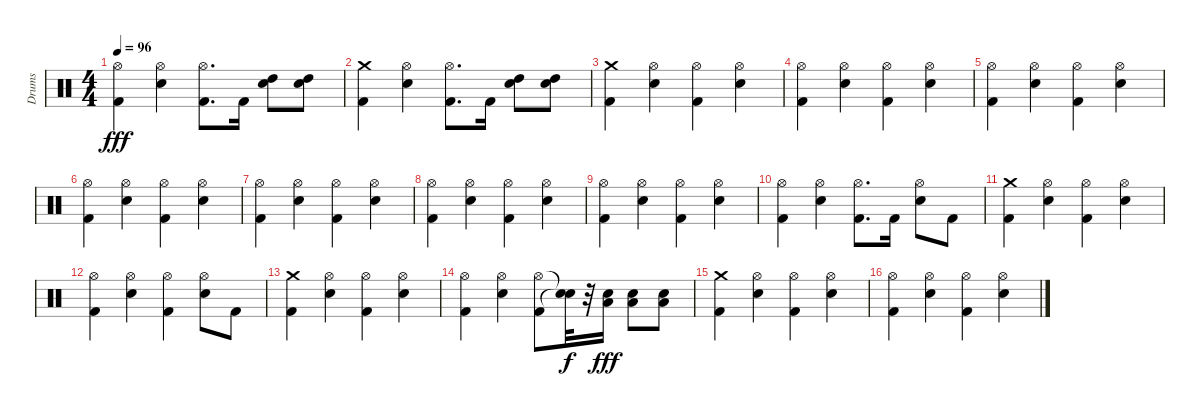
\track ("Drums" "Drums") {instrument percussion}
\staff {score}
\articulation defaults
\ts (4 4)
\tempo 96
\clef neutral
\ks c
("Hi-Hat (open)" "Kick (hit) 2").4{dy fff} ("Hi-Hat (open)" "Snare (hit) 2").4 ("Hi-Hat (open)" "Kick (hit) 2").8{d} "Kick (hit) 2".16 ("Snare (hit) 2" "High Tom (hit)").8 ("Snare (hit) 2" "High Tom (hit)").8 |
("Kick (hit) 2" "Crash medium (hit)").4 ("Hi-Hat (open)" "Snare (hit) 2").4 ("Hi-Hat (open)" "Kick (hit) 2").8{d} "Kick (hit) 2".16 ("Snare (hit) 2" "High Tom (hit)").8 ("Snare (hit) 2" "High Tom (hit)").8 |
("Kick (hit) 2" "Crash medium (hit)").4 ("Hi-Hat (open)" "Snare (hit) 2").4 ("Hi-Hat (open)" "Kick (hit) 2").4 ("Hi-Hat (open)" "Snare (hit) 2").4 |
("Hi-Hat (open)" "Kick (hit) 2").4 ("Hi-Hat (open)" "Snare (hit) 2").4 ("Hi-Hat (open)" "Kick (hit) 2").4 ("Hi-Hat (open)" "Snare (hit) 2").4 |
("Hi-Hat (open)" "Kick (hit) 2").4 ("Hi-Hat (open)" "Snare (hit) 2").4 ("Hi-Hat (open)" "Kick (hit) 2").4 ("Hi-Hat (open)" "Snare (hit) 2").4 |
("Hi-Hat (open)" "Kick (hit) 2").4 ("Hi-Hat (open)" "Snare (hit) 2").4 ("Hi-Hat (open)" "Kick (hit) 2").4 ("Hi-Hat (open)" "Snare (hit) 2").4 |
("Hi-Hat (open)" "Kick (hit) 2").4 ("Hi-Hat (open)" "Snare (hit) 2").4 ("Hi-Hat (open)" "Kick (hit) 2").4 ("Hi-Hat (open)" "Snare (hit) 2").4 |
("Hi-Hat (open)" "Kick (hit) 2").4 ("Hi-Hat (open)" "Snare (hit) 2").4 ("Hi-Hat (open)" "Kick (hit) 2").4 ("Hi-Hat (open)" "Snare (hit) 2").4 |
("Hi-Hat (open)" "Kick (hit) 2").4 ("Hi-Hat (open)" "Snare (hit) 2").4 ("Hi-Hat (open)" "Kick (hit) 2").4 ("Hi-Hat (open)" "Snare (hit) 2").4 |
("Hi-Hat (open)" "Kick (hit) 2").4 ("Hi-Hat (open)" "Snare (hit) 2").4 ("Hi-Hat (open)" "Kick (hit) 2").8{d} "Kick (hit) 2".16 ("Hi-Hat (open)" "Snare (hit) 2").8 "Kick (hit) 2".8 |
("Kick (hit) 2" "Crash medium (hit)").4 ("Hi-Hat (open)" "Snare (hit) 2").4 ("Hi-Hat (open)" "Kick (hit) 2").4 ("Hi-Hat (open)" "Snare (hit) 2").4 |
("Hi-Hat (open)" "Kick (hit) 2").4 ("Hi-Hat (open)" "Snare (hit) 2").4 ("Hi-Hat (open)" "Kick (hit) 2").4 ("Hi-Hat (open)" "Snare (hit) 2").8 "Kick (hit) 2".8 |
("Kick (hit) 2" "Crash medium (hit)").4 ("Hi-Hat (open)" "Snare (hit) 2").4 ("Hi-Hat (open)" "Kick (hit) 2").4 ("Hi-Hat (open)" "Snare (hit) 2").4 |
("Hi-Hat (open)" "Kick (hit) 2").4 ("Hi-Hat (open)" "Snare (hit) 2").4 ("Kick (hit) 2" "Hi-Hat (open)").8 ("Snare (hit)"{t} "Snare (hit)"{t}).32{dy f} r.32 ("Snare (hit) 2" "Low Floor Tom (hit)").16{dy fff} ("Snare (hit) 2" "Low Floor Tom (hit)").8 ("Snare (hit) 2" "Low Floor Tom (hit)").8 |
("Kick (hit) 2" "Crash medium (hit)").4 ("Hi-Hat (open)" "Snare (hit) 2").4 ("Hi-Hat (open)" "Kick (hit) 2").4 ("Hi-Hat (open)" "Snare (hit) 2").4 |
("Hi-Hat (open)" "Kick (hit) 2").4 ("Hi-Hat (open)" "Snare (hit) 2").4 ("Hi-Hat (open)" "Kick (hit) 2").4 ("Hi-Hat (open)" "Snare (hit) 2").4
